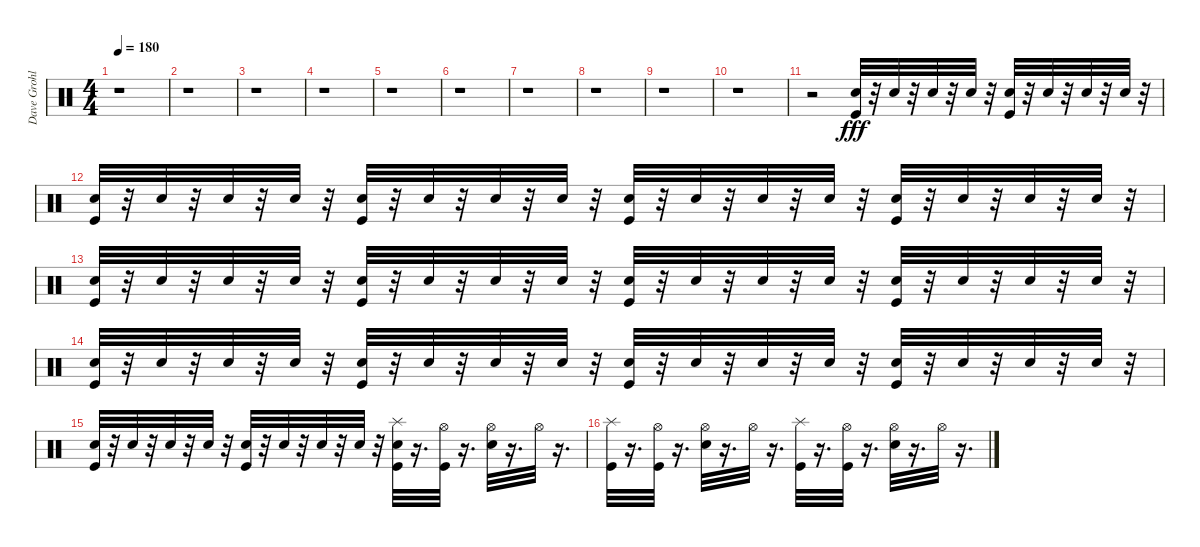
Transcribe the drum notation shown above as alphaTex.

\track ("Dave Grohl - Drums" "Dave Grohl") {instrument percussion}
\staff {score}
\articulation defaults
\ts (4 4)
\tempo 180
\clef neutral
\ks c
r.1{dy fff} |
r.1 |
r.1 |
r.1 |
r.1 |
r.1 |
r.1 |
r.1 |
r.1 |
r.1 |
r.2 ("Kick (hit)" "Snare (hit) 2").32 r.32 "Snare (hit) 2".32 r.32 "Snare (hit) 2".32 r.32 "Snare (hit) 2".32 r.32 ("Kick (hit)" "Snare (hit) 2").32 r.32 "Snare (hit) 2".32 r.32 "Snare (hit) 2".32 r.32 "Snare (hit) 2".32 r.32 |
("Kick (hit)" "Snare (hit) 2").32 r.32 "Snare (hit) 2".32 r.32 "Snare (hit) 2".32 r.32 "Snare (hit) 2".32 r.32 ("Kick (hit)" "Snare (hit) 2").32 r.32 "Snare (hit) 2".32 r.32 "Snare (hit) 2".32 r.32 "Snare (hit) 2".32 r.32 ("Kick (hit)" "Snare (hit) 2").32 r.32 "Snare (hit) 2".32 r.32 "Snare (hit) 2".32 r.32 "Snare (hit) 2".32 r.32 ("Kick (hit)" "Snare (hit) 2").32 r.32 "Snare (hit) 2".32 r.32 "Snare (hit) 2".32 r.32 "Snare (hit) 2".32 r.32 |
("Kick (hit)" "Snare (hit) 2").32 r.32 "Snare (hit) 2".32 r.32 "Snare (hit) 2".32 r.32 "Snare (hit) 2".32 r.32 ("Snare (hit) 2" "Kick (hit)").32 r.32 "Snare (hit) 2".32 r.32 "Snare (hit) 2".32 r.32 "Snare (hit) 2".32 r.32 ("Snare (hit) 2" "Kick (hit)").32 r.32 "Snare (hit) 2".32 r.32 "Snare (hit) 2".32 r.32 "Snare (hit) 2".32 r.32 ("Snare (hit) 2" "Kick (hit)").32 r.32 "Snare (hit) 2".32 r.32 "Snare (hit) 2".32 r.32 "Snare (hit) 2".32 r.32 |
("Snare (hit) 2" "Kick (hit)").32 r.32 "Snare (hit) 2".32 r.32 "Snare (hit) 2".32 r.32 "Snare (hit) 2".32 r.32 ("Kick (hit)" "Snare (hit) 2").32 r.32 "Snare (hit) 2".32 r.32 "Snare (hit) 2".32 r.32 "Snare (hit) 2".32 r.32 ("Kick (hit)" "Snare (hit) 2").32 r.32 "Snare (hit) 2".32 r.32 "Snare (hit) 2".32 r.32 "Snare (hit) 2".32 r.32 ("Kick (hit)" "Snare (hit) 2").32 r.32 "Snare (hit) 2".32 r.32 "Snare (hit) 2".32 r.32 "Snare (hit) 2".32 r.32 |
("Kick (hit)" "Snare (hit) 2").32 r.32 "Snare (hit) 2".32 r.32 "Snare (hit) 2".32 r.32 "Snare (hit) 2".32 r.32 ("Kick (hit)" "Snare (hit) 2").32 r.32 "Snare (hit) 2".32 r.32 "Snare (hit) 2".32 r.32 "Snare (hit) 2".32 r.32 ("Splash (hit)" "Snare (hit) 2" "Kick (hit)").32 r.16{d} ("Hi-Hat (open)" "Kick (hit)").32 r.16{d} ("Hi-Hat (open)" "Snare (hit) 2").32 r.16{d} "Hi-Hat (open)".32 r.16{d} |
("Splash (hit)" "Kick (hit)").32 r.16{d} ("Hi-Hat (open)" "Kick (hit)").32 r.16{d} ("Hi-Hat (open)" "Snare (hit) 2").32 r.16{d} "Hi-Hat (open)".32 r.16{d} ("Splash (hit)" "Kick (hit)").32 r.16{d} ("Hi-Hat (open)" "Kick (hit)").32 r.16{d} ("Hi-Hat (open)" "Snare (hit) 2").32 r.16{d} "Hi-Hat (open)".32 r.16{d}
